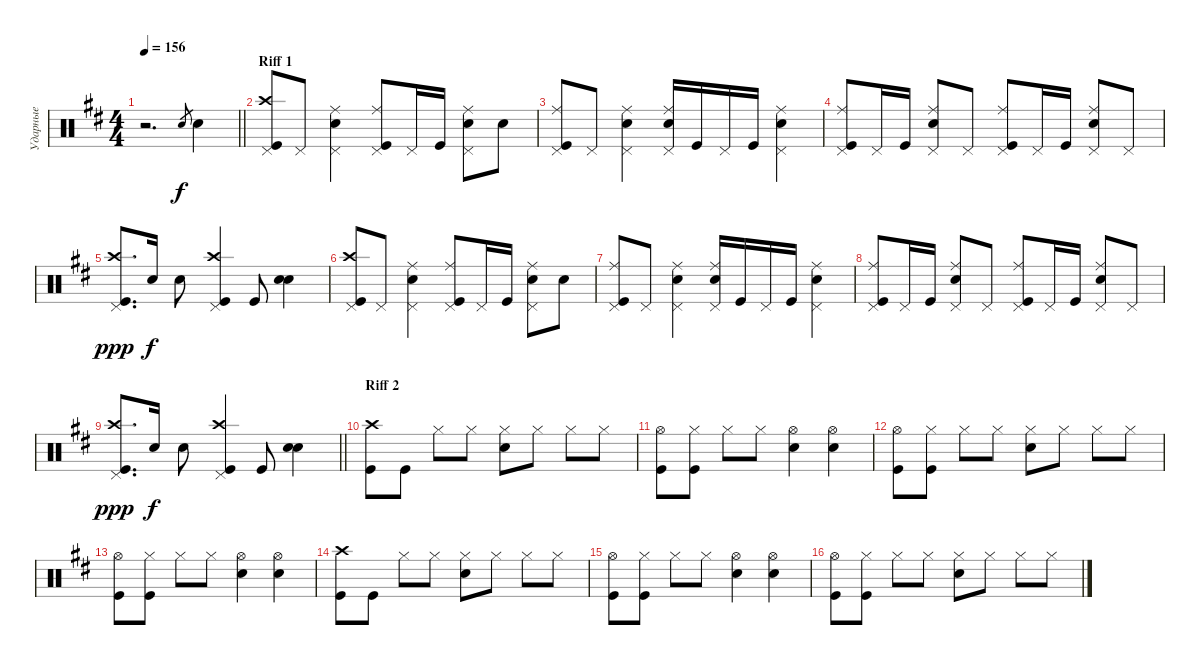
\track ("Ударные" "Ударные") {instrument percussion}
\staff {score}
\articulation defaults
\ts (4 4)
\tempo 156
\clef neutral
\barLineRight lightlight
\ks bminor
r.2{d dy f} "Snare (hit) 2".8{gr} "Snare (hit) 2".4 |
\section ("" "Riff 1")
("Kick (hit)" "Crash high (hit)" "Pedal Hi-Hat (hit)").8 "Pedal Hi-Hat (hit)".8 ("Snare (hit) 2" "Pedal Hi-Hat (hit)" "Ride (middle)").4 ("Kick (hit)" "Pedal Hi-Hat (hit)" "Ride (middle)").8 "Pedal Hi-Hat (hit)".16 "Kick (hit)".16 ("Snare (hit) 2" "Pedal Hi-Hat (hit)" "Ride (middle)").8 "Snare (hit) 2".8 |
("Kick (hit)" "Pedal Hi-Hat (hit)" "Ride (middle)").8 "Pedal Hi-Hat (hit)".8 ("Pedal Hi-Hat (hit)" "Snare (hit) 2" "Ride (middle)").4 ("Snare (hit) 2" "Pedal Hi-Hat (hit)" "Ride (middle)").16 "Kick (hit)".16 "Pedal Hi-Hat (hit)".16 "Kick (hit)".16 ("Snare (hit) 2" "Pedal Hi-Hat (hit)" "Ride (middle)").4 |
("Kick (hit)" "Pedal Hi-Hat (hit)" "Ride (middle)").8 "Pedal Hi-Hat (hit)".16 "Kick (hit)".16 ("Snare (hit) 2" "Pedal Hi-Hat (hit)" "Ride (middle)").8 "Pedal Hi-Hat (hit)".8 ("Kick (hit)" "Pedal Hi-Hat (hit)" "Ride (middle)").8 "Pedal Hi-Hat (hit)".16 "Kick (hit)".16 ("Pedal Hi-Hat (hit)" "Snare (hit) 2" "Ride (middle)").8 "Pedal Hi-Hat (hit)".8 |
("Kick (hit)" "Crash high (hit)" "Pedal Hi-Hat (hit)").8{d dy ppp} "Snare (hit) 2".16{dy f} "Snare (hit) 2".8 ("Kick (hit)" "Crash high (hit)" "Pedal Hi-Hat (hit)").4 "Kick (hit)".8 ("Snare (hit) 2" "Snare (hit) 2").4{bd 240} |
("Kick (hit)" "Crash high (hit)" "Pedal Hi-Hat (hit)").8 "Pedal Hi-Hat (hit)".8 ("Snare (hit) 2" "Pedal Hi-Hat (hit)" "Ride (middle)").4 ("Kick (hit)" "Pedal Hi-Hat (hit)" "Ride (middle)").8 "Pedal Hi-Hat (hit)".16 "Kick (hit)".16 ("Snare (hit) 2" "Pedal Hi-Hat (hit)" "Ride (middle)").8 "Snare (hit) 2".8 |
("Kick (hit)" "Pedal Hi-Hat (hit)" "Ride (middle)").8 "Pedal Hi-Hat (hit)".8 ("Pedal Hi-Hat (hit)" "Snare (hit) 2" "Ride (middle)").4 ("Snare (hit) 2" "Pedal Hi-Hat (hit)" "Ride (middle)").16 "Kick (hit)".16 "Pedal Hi-Hat (hit)".16 "Kick (hit)".16 ("Snare (hit) 2" "Pedal Hi-Hat (hit)" "Ride (middle)").4 |
("Kick (hit)" "Pedal Hi-Hat (hit)" "Ride (middle)").8 "Pedal Hi-Hat (hit)".16 "Kick (hit)".16 ("Snare (hit) 2" "Pedal Hi-Hat (hit)" "Ride (middle)").8 "Pedal Hi-Hat (hit)".8 ("Kick (hit)" "Pedal Hi-Hat (hit)" "Ride (middle)").8 "Pedal Hi-Hat (hit)".16 "Kick (hit)".16 ("Pedal Hi-Hat (hit)" "Snare (hit) 2" "Ride (middle)").8 "Pedal Hi-Hat (hit)".8 |
\barLineRight lightlight
("Kick (hit)" "Crash high (hit)" "Pedal Hi-Hat (hit)").8{d dy ppp} "Snare (hit) 2".16{dy f} "Snare (hit) 2".8 ("Kick (hit)" "Crash high (hit)" "Pedal Hi-Hat (hit)").4 "Kick (hit)".8 ("Snare (hit) 2" "Snare (hit) 2").4{bd 240} |
\section ("" "Riff 2")
("Kick (hit)" "Crash high (hit)").8 "Kick (hit)".8 "Hi-Hat (closed)".8 "Hi-Hat (closed)".8 ("Hi-Hat (closed)" "Snare (hit) 2").8 "Hi-Hat (closed)".8 "Hi-Hat (closed)".8 "Hi-Hat (closed)".8 |
("Hi-Hat (open)" "Kick (hit)").8 ("Hi-Hat (closed)" "Kick (hit)").8 "Hi-Hat (closed)".8 "Hi-Hat (closed)".8 ("Hi-Hat (open)" "Snare (hit) 2").4 ("Hi-Hat (open)" "Snare (hit) 2").4 |
("Kick (hit)" "Hi-Hat (open)").8 ("Kick (hit)" "Hi-Hat (closed)").8 "Hi-Hat (closed)".8 "Hi-Hat (closed)".8 ("Hi-Hat (closed)" "Snare (hit) 2").8 "Hi-Hat (closed)".8 "Hi-Hat (closed)".8 "Hi-Hat (closed)".8 |
("Hi-Hat (open)" "Kick (hit)").8 ("Hi-Hat (closed)" "Kick (hit)").8 "Hi-Hat (closed)".8 "Hi-Hat (closed)".8 ("Hi-Hat (open)" "Snare (hit) 2").4 ("Hi-Hat (open)" "Snare (hit) 2").4 |
("Kick (hit)" "Crash high (hit)").8 "Kick (hit)".8 "Hi-Hat (closed)".8 "Hi-Hat (closed)".8 ("Hi-Hat (closed)" "Snare (hit) 2").8 "Hi-Hat (closed)".8 "Hi-Hat (closed)".8 "Hi-Hat (closed)".8 |
("Hi-Hat (open)" "Kick (hit)").8 ("Hi-Hat (closed)" "Kick (hit)").8 "Hi-Hat (closed)".8 "Hi-Hat (closed)".8 ("Hi-Hat (open)" "Snare (hit) 2").4 ("Hi-Hat (open)" "Snare (hit) 2").4 |
("Kick (hit)" "Hi-Hat (open)").8 ("Kick (hit)" "Hi-Hat (closed)").8 "Hi-Hat (closed)".8 "Hi-Hat (closed)".8 ("Hi-Hat (closed)" "Snare (hit) 2").8 "Hi-Hat (closed)".8 "Hi-Hat (closed)".8 "Hi-Hat (closed)".8
